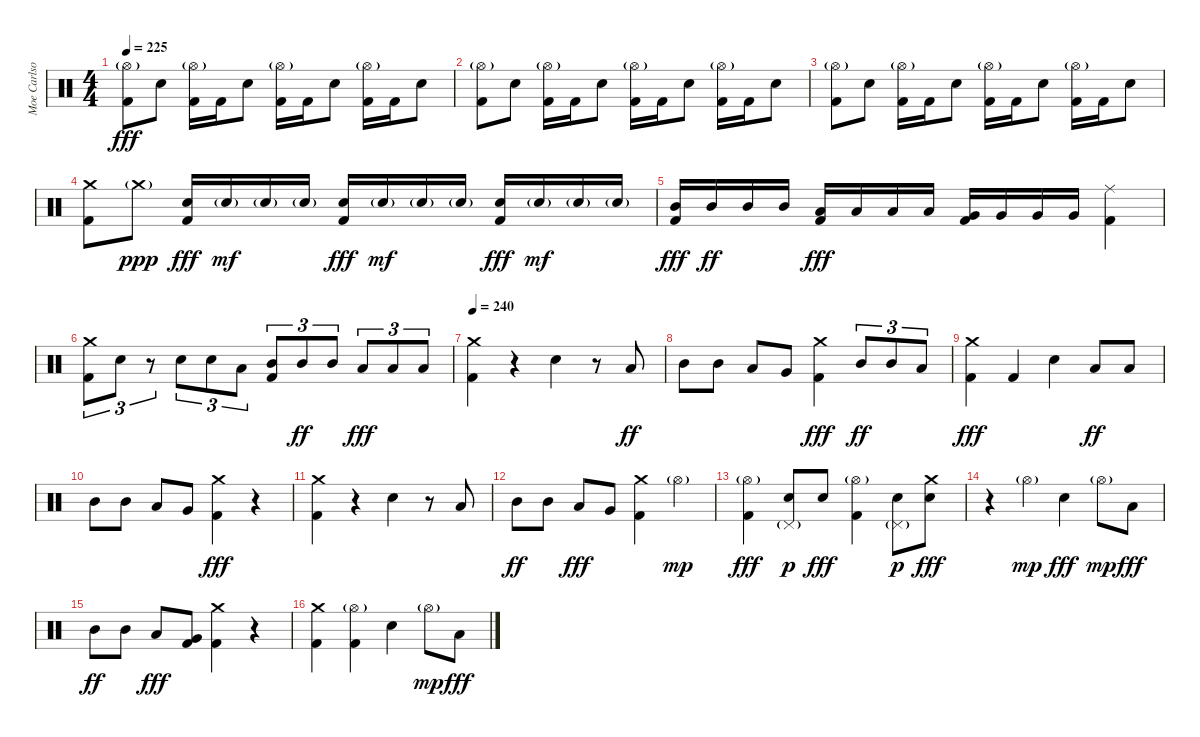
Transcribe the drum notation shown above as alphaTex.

\track ("Moe Carlson" "Moe Carlso") {instrument percussion}
\staff {score}
\articulation defaults
\ts (4 4)
\tempo 225
\clef neutral
\ks c
("Hi-Hat (open)"{g} "Kick (hit) 2").8{dy fff} "Electric Snare (hit)".8 ("Hi-Hat (open)"{g} "Kick (hit) 2").16 "Kick (hit) 2".16 "Electric Snare (hit)".8 ("Hi-Hat (open)"{g} "Kick (hit) 2").16 "Kick (hit) 2".16 "Electric Snare (hit)".8 ("Hi-Hat (open)"{g} "Kick (hit) 2").16 "Kick (hit) 2".16 "Electric Snare (hit)".8 |
("Hi-Hat (open)"{g} "Kick (hit) 2").8 "Electric Snare (hit)".8 ("Hi-Hat (open)"{g} "Kick (hit) 2").16 "Kick (hit) 2".16 "Electric Snare (hit)".8 ("Hi-Hat (open)"{g} "Kick (hit) 2").16 "Kick (hit) 2".16 "Electric Snare (hit)".8 ("Hi-Hat (open)"{g} "Kick (hit) 2").16 "Kick (hit) 2".16 "Electric Snare (hit)".8 |
("Hi-Hat (open)"{g} "Kick (hit) 2").8 "Electric Snare (hit)".8 ("Hi-Hat (open)"{g} "Kick (hit) 2").16 "Kick (hit) 2".16 "Electric Snare (hit)".8 ("Hi-Hat (open)"{g} "Kick (hit) 2").16 "Kick (hit) 2".16 "Electric Snare (hit)".8 ("Hi-Hat (open)"{g} "Kick (hit) 2").16 "Kick (hit) 2".16 "Electric Snare (hit)".8 |
("Crash medium (hit)" "Kick (hit) 2").8 "Crash medium (hit)"{g}.8{dy ppp} ("Electric Snare (hit)" "Kick (hit) 2").16{dy fff} "Electric Snare (hit)"{g}.16{dy mf} "Electric Snare (hit)"{g}.16 "Electric Snare (hit)"{g}.16 ("Electric Snare (hit)" "Kick (hit) 2").16{dy fff} "Electric Snare (hit)"{g}.16{dy mf} "Electric Snare (hit)"{g}.16 "Electric Snare (hit)"{g}.16 ("Electric Snare (hit)" "Kick (hit) 2").16{dy fff} "Electric Snare (hit)"{g}.16{dy mf} "Electric Snare (hit)"{g}.16 "Electric Snare (hit)"{g}.16 |
("Mid Tom (hit)" "Kick (hit) 2").16{dy fff} "Mid Tom (hit)".16{dy ff} "Mid Tom (hit)".16 "Mid Tom (hit)".16 ("Low Tom (hit)" "Kick (hit) 2").16{dy fff} "Low Tom (hit)".16 "Low Tom (hit)".16 "Low Tom (hit)".16 ("Very Low Tom (hit)" "Kick (hit) 2").16 "Very Low Tom (hit)".16 "Very Low Tom (hit)".16 "Very Low Tom (hit)".16 ("Ride (middle)" "Kick (hit) 2").4 |
("Crash medium (hit)" "Kick (hit) 2").8{tu (3 2)} "Electric Snare (hit)".8{tu (3 2)} r.8{tu (3 2)} "Electric Snare (hit)".8{tu (3 2)} "Electric Snare (hit)".8{tu (3 2)} "Low Tom (hit)".8{tu (3 2)} ("Mid Tom (hit)" "Kick (hit) 2").8{tu (3 2)} "Mid Tom (hit)".8{tu (3 2) dy ff} "Mid Tom (hit)".8{tu (3 2)} "Low Tom (hit)".8{tu (3 2) dy fff} "Low Tom (hit)".8{tu (3 2)} "Low Tom (hit)".8{tu (3 2)} |
\tempo 240
("Crash medium (hit)" "Kick (hit) 2").4 r.4 "Electric Snare (hit)".4 r.8 "Low Tom (hit)".8{dy ff} |
"Mid Tom (hit)".8 "Mid Tom (hit)".8 "Low Tom (hit)".8 "Very Low Tom (hit)".8 ("Crash medium (hit)" "Kick (hit) 2").4{dy fff} "Mid Tom (hit)".8{tu (3 2) dy ff} "Mid Tom (hit)".8{tu (3 2)} "Low Tom (hit)".8{tu (3 2)} |
("Crash medium (hit)" "Kick (hit) 2").4{dy fff} "Kick (hit) 2".4 "Electric Snare (hit)".4 "Low Tom (hit)".8{dy ff} "Low Tom (hit)".8 |
"Mid Tom (hit)".8 "Mid Tom (hit)".8 "Low Tom (hit)".8 "Very Low Tom (hit)".8 ("Crash medium (hit)" "Kick (hit) 2").4{dy fff} r.4 |
("Crash medium (hit)" "Kick (hit) 2").4 r.4 "Electric Snare (hit)".4 r.8 "Low Tom (hit)".8 |
"Mid Tom (hit)".8{dy ff} "Mid Tom (hit)".8 "Low Tom (hit)".8{dy fff} "Very Low Tom (hit)".8 ("Crash medium (hit)" "Kick (hit) 2").4 "Hi-Hat (open)"{g}.4{dy mp} |
("Hi-Hat (open)"{g} "Kick (hit) 2").4{dy fff} ("Electric Snare (hit)" "Pedal Hi-Hat (hit)"{g}).8{dy p} "Electric Snare (hit)".8{dy fff} ("Hi-Hat (open)"{g} "Kick (hit) 2").4 ("Electric Snare (hit)" "Pedal Hi-Hat (hit)"{g}).8{dy p} ("Crash medium (hit)" "Electric Snare (hit)").8{dy fff} |
r.4 "Hi-Hat (open)"{g}.4{dy mp} "Electric Snare (hit)".4{dy fff} "Hi-Hat (open)"{g}.8{dy mp} "Low Tom (hit)".8{dy fff} |
"Mid Tom (hit)".8{dy ff} "Mid Tom (hit)".8 "Low Tom (hit)".8{dy fff} ("Very Low Tom (hit)" "Kick (hit) 2").8 ("Crash medium (hit)" "Kick (hit) 2").4 r.4 |
("Crash medium (hit)" "Kick (hit) 2").4 ("Hi-Hat (open)"{g} "Kick (hit) 2").4 "Electric Snare (hit)".4 "Hi-Hat (open)"{g}.8{dy mp} "Low Tom (hit)".8{dy fff}
